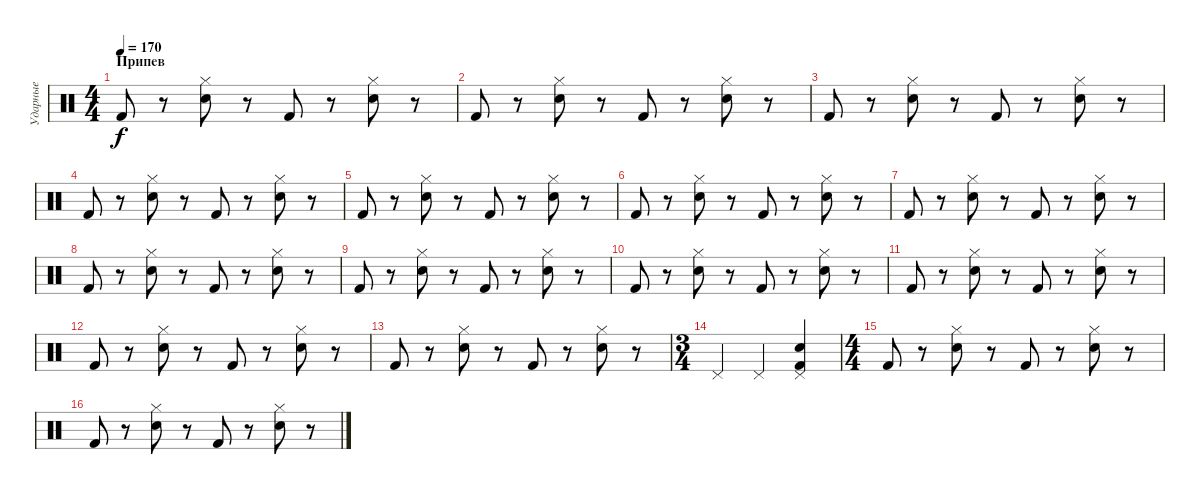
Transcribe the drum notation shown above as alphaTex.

\track ("Ударные" "Ударные") {instrument percussion}
\staff {score}
\articulation defaults
\ts (4 4)
\section ("" "Припев")
\tempo 170
\clef neutral
\ks c "Kick (hit) 2".8{dy f}
r.8 ("Hi-Hat (closed)" "Electric Snare (hit)").8 r.8 "Kick (hit) 2".8 r.8 ("Hi-Hat (closed)" "Electric Snare (hit)").8 r.8 |
"Kick (hit) 2".8 r.8 ("Hi-Hat (closed)" "Electric Snare (hit)").8 r.8 "Kick (hit) 2".8 r.8 ("Hi-Hat (closed)" "Electric Snare (hit)").8 r.8 |
"Kick (hit) 2".8 r.8 ("Hi-Hat (closed)" "Electric Snare (hit)").8 r.8 "Kick (hit) 2".8 r.8 ("Hi-Hat (closed)" "Electric Snare (hit)").8 r.8 |
"Kick (hit) 2".8 r.8 ("Hi-Hat (closed)" "Electric Snare (hit)").8 r.8 "Kick (hit) 2".8 r.8 ("Hi-Hat (closed)" "Electric Snare (hit)").8 r.8 |
"Kick (hit) 2".8 r.8 ("Hi-Hat (closed)" "Electric Snare (hit)").8 r.8 "Kick (hit) 2".8 r.8 ("Hi-Hat (closed)" "Electric Snare (hit)").8 r.8 |
"Kick (hit) 2".8 r.8 ("Hi-Hat (closed)" "Electric Snare (hit)").8 r.8 "Kick (hit) 2".8 r.8 ("Hi-Hat (closed)" "Electric Snare (hit)").8 r.8 |
"Kick (hit) 2".8 r.8 ("Hi-Hat (closed)" "Electric Snare (hit)").8 r.8 "Kick (hit) 2".8 r.8 ("Hi-Hat (closed)" "Electric Snare (hit)").8 r.8 |
"Kick (hit) 2".8 r.8 ("Hi-Hat (closed)" "Electric Snare (hit)").8 r.8 "Kick (hit) 2".8 r.8 ("Hi-Hat (closed)" "Electric Snare (hit)").8 r.8 |
"Kick (hit) 2".8 r.8 ("Hi-Hat (closed)" "Electric Snare (hit)").8 r.8 "Kick (hit) 2".8 r.8 ("Hi-Hat (closed)" "Electric Snare (hit)").8 r.8 |
"Kick (hit) 2".8 r.8 ("Hi-Hat (closed)" "Electric Snare (hit)").8 r.8 "Kick (hit) 2".8 r.8 ("Hi-Hat (closed)" "Electric Snare (hit)").8 r.8 |
"Kick (hit) 2".8 r.8 ("Hi-Hat (closed)" "Electric Snare (hit)").8 r.8 "Kick (hit) 2".8 r.8 ("Hi-Hat (closed)" "Electric Snare (hit)").8 r.8 |
"Kick (hit) 2".8 r.8 ("Hi-Hat (closed)" "Electric Snare (hit)").8 r.8 "Kick (hit) 2".8 r.8 ("Hi-Hat (closed)" "Electric Snare (hit)").8 r.8 |
"Kick (hit) 2".8 r.8 ("Hi-Hat (closed)" "Electric Snare (hit)").8 r.8 "Kick (hit) 2".8 r.8 ("Hi-Hat (closed)" "Electric Snare (hit)").8 r.8 |
\ts (3 4)
"Pedal Hi-Hat (hit)".4 "Pedal Hi-Hat (hit)".4 ("Snare (hit) 2" "Pedal Hi-Hat (hit)" "Kick (hit) 2").4{bd 120} |
\ts (4 4)
"Kick (hit) 2".8 r.8 ("Hi-Hat (closed)" "Electric Snare (hit)").8 r.8 "Kick (hit) 2".8 r.8 ("Hi-Hat (closed)" "Electric Snare (hit)").8 r.8 |
"Kick (hit) 2".8 r.8 ("Hi-Hat (closed)" "Electric Snare (hit)").8 r.8 "Kick (hit) 2".8 r.8 ("Hi-Hat (closed)" "Electric Snare (hit)").8 r.8
